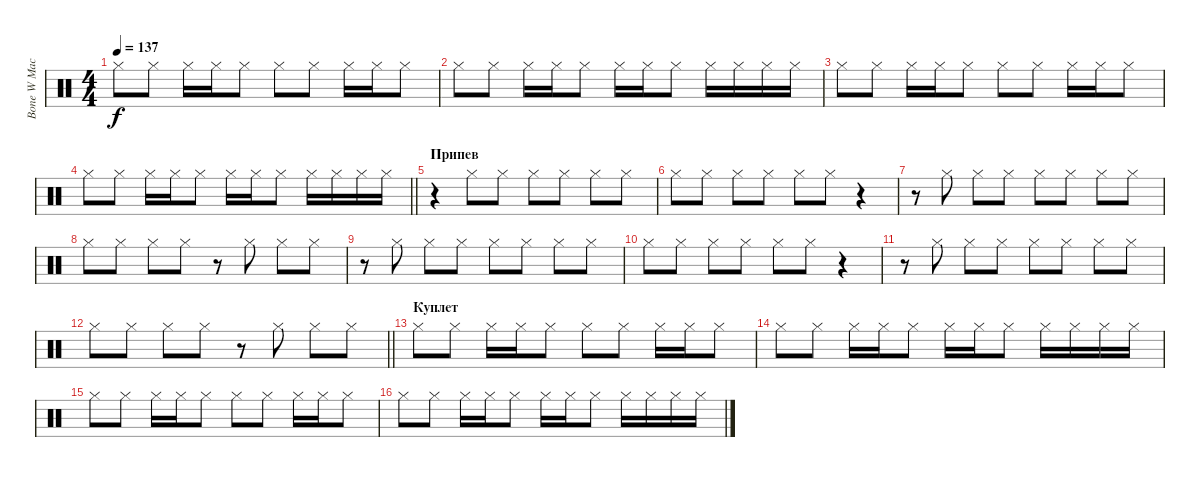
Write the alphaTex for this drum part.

\track ("Bone W Machine Cimbals" "Bone W Mac") {instrument percussion}
\staff {score}
\articulation defaults
\ts (4 4)
\tempo 137
\clef neutral
\ks c "Hi-Hat (closed)".8{dy f} "Hi-Hat (closed)".8 "Hi-Hat (closed)".16 "Hi-Hat (closed)".16 "Hi-Hat (closed)".8 "Hi-Hat (closed)".8 "Hi-Hat (closed)".8 "Hi-Hat (closed)".16 "Hi-Hat (closed)".16 "Hi-Hat (closed)".8
|
"Hi-Hat (closed)".8 "Hi-Hat (closed)".8 "Hi-Hat (closed)".16 "Hi-Hat (closed)".16 "Hi-Hat (closed)".8 "Hi-Hat (closed)".16 "Hi-Hat (closed)".16 "Hi-Hat (closed)".8 "Hi-Hat (closed)".16 "Hi-Hat (closed)".16 "Hi-Hat (closed)".16 "Hi-Hat (closed)".16 |
"Hi-Hat (closed)".8 "Hi-Hat (closed)".8 "Hi-Hat (closed)".16 "Hi-Hat (closed)".16 "Hi-Hat (closed)".8 "Hi-Hat (closed)".8 "Hi-Hat (closed)".8 "Hi-Hat (closed)".16 "Hi-Hat (closed)".16 "Hi-Hat (closed)".8 |
\barLineRight lightlight "Hi-Hat (closed)".8 "Hi-Hat (closed)".8 "Hi-Hat (closed)".16 "Hi-Hat (closed)".16 "Hi-Hat (closed)".8 "Hi-Hat (closed)".16 "Hi-Hat (closed)".16 "Hi-Hat (closed)".8 "Hi-Hat (closed)".16 "Hi-Hat (closed)".16 "Hi-Hat (closed)".16 "Hi-Hat (closed)".16
|
\section ("" "Припев")
r.4 "Hi-Hat (closed)".8 "Hi-Hat (closed)".8 "Hi-Hat (closed)".8 "Hi-Hat (closed)".8 "Hi-Hat (closed)".8 "Hi-Hat (closed)".8 |
"Hi-Hat (closed)".8 "Hi-Hat (closed)".8 "Hi-Hat (closed)".8 "Hi-Hat (closed)".8 "Hi-Hat (closed)".8 "Hi-Hat (closed)".8 r.4 |
r.8 "Hi-Hat (closed)".8 "Hi-Hat (closed)".8 "Hi-Hat (closed)".8 "Hi-Hat (closed)".8 "Hi-Hat (closed)".8 "Hi-Hat (closed)".8 "Hi-Hat (closed)".8 |
"Hi-Hat (closed)".8 "Hi-Hat (closed)".8 "Hi-Hat (closed)".8 "Hi-Hat (closed)".8 r.8 "Hi-Hat (closed)".8 "Hi-Hat (closed)".8 "Hi-Hat (closed)".8 |
r.8 "Hi-Hat (closed)".8 "Hi-Hat (closed)".8 "Hi-Hat (closed)".8 "Hi-Hat (closed)".8 "Hi-Hat (closed)".8 "Hi-Hat (closed)".8 "Hi-Hat (closed)".8 |
"Hi-Hat (closed)".8 "Hi-Hat (closed)".8 "Hi-Hat (closed)".8 "Hi-Hat (closed)".8 "Hi-Hat (closed)".8 "Hi-Hat (closed)".8 r.4 |
r.8 "Hi-Hat (closed)".8 "Hi-Hat (closed)".8 "Hi-Hat (closed)".8 "Hi-Hat (closed)".8 "Hi-Hat (closed)".8 "Hi-Hat (closed)".8 "Hi-Hat (closed)".8 |
\barLineRight lightlight "Hi-Hat (closed)".8 "Hi-Hat (closed)".8 "Hi-Hat (closed)".8 "Hi-Hat (closed)".8
r.8 "Hi-Hat (closed)".8 "Hi-Hat (closed)".8 "Hi-Hat (closed)".8 |
\section ("" "Куплет")
"Hi-Hat (closed)".8 "Hi-Hat (closed)".8 "Hi-Hat (closed)".16 "Hi-Hat (closed)".16 "Hi-Hat (closed)".8 "Hi-Hat (closed)".8 "Hi-Hat (closed)".8 "Hi-Hat (closed)".16 "Hi-Hat (closed)".16 "Hi-Hat (closed)".8 |
"Hi-Hat (closed)".8 "Hi-Hat (closed)".8 "Hi-Hat (closed)".16 "Hi-Hat (closed)".16 "Hi-Hat (closed)".8 "Hi-Hat (closed)".16 "Hi-Hat (closed)".16 "Hi-Hat (closed)".8 "Hi-Hat (closed)".16 "Hi-Hat (closed)".16 "Hi-Hat (closed)".16 "Hi-Hat (closed)".16 |
"Hi-Hat (closed)".8 "Hi-Hat (closed)".8 "Hi-Hat (closed)".16 "Hi-Hat (closed)".16 "Hi-Hat (closed)".8 "Hi-Hat (closed)".8 "Hi-Hat (closed)".8 "Hi-Hat (closed)".16 "Hi-Hat (closed)".16 "Hi-Hat (closed)".8 |
"Hi-Hat (closed)".8 "Hi-Hat (closed)".8 "Hi-Hat (closed)".16 "Hi-Hat (closed)".16 "Hi-Hat (closed)".8 "Hi-Hat (closed)".16 "Hi-Hat (closed)".16 "Hi-Hat (closed)".8 "Hi-Hat (closed)".16 "Hi-Hat (closed)".16 "Hi-Hat (closed)".16 "Hi-Hat (closed)".16
